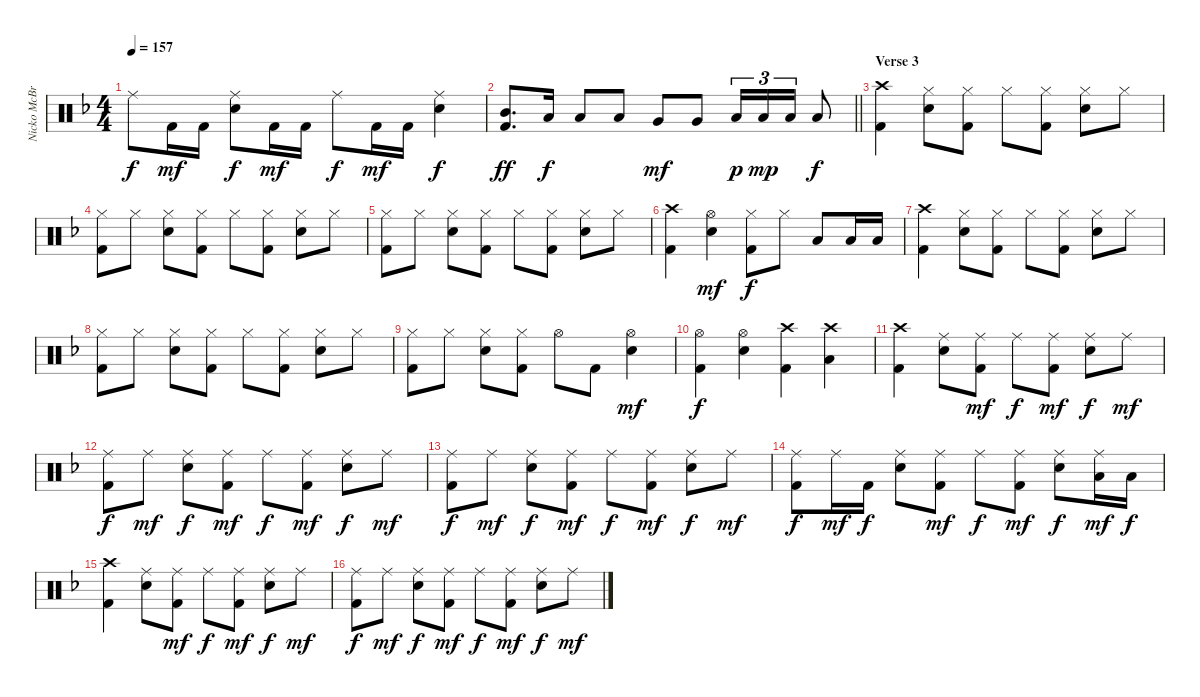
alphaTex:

\track ("Nicko McBrain" "Nicko McBr") {instrument percussion}
\staff {score}
\articulation defaults
\ts (4 4)
\tempo 157
\clef neutral
\ks f "Ride (middle)".8{dy f} "Kick (hit) 2".16{dy mf} "Kick (hit) 2".16
("Ride (middle)" "Electric Snare (hit)").8{dy f} "Kick (hit) 2".16{dy mf} "Kick (hit) 2".16 "Ride (middle)".8{dy f} "Kick (hit) 2".16{dy mf} "Kick (hit) 2".16 ("Ride (middle)" "Electric Snare (hit)").4{dy f} |
\barLineRight lightlight
("Mid Tom (hit)" "Kick (hit) 2").8{d dy ff} "Low Tom (hit)".16{dy f} "Low Tom (hit)".8 "Low Tom (hit)".8 "Very Low Tom (hit)".8{dy mf} "Very Low Tom (hit)".8 "Low Tom (hit)".16{tu (3 2) dy p} "Low Tom (hit)".16{tu (3 2) dy mp} "Low Tom (hit)".16{tu (3 2)} "Low Tom (hit)".8{dy f} |
\section ("" "Verse 3")
("Crash high (hit)" "Kick (hit) 2").4 ("Hi-Hat (closed)" "Electric Snare (hit)").8 ("Hi-Hat (closed)" "Kick (hit) 2").8 "Hi-Hat (closed)".8 ("Hi-Hat (closed)" "Kick (hit) 2").8 ("Hi-Hat (closed)" "Electric Snare (hit)").8 "Hi-Hat (closed)".8 |
("Hi-Hat (closed)" "Kick (hit) 2").8 "Hi-Hat (closed)".8 ("Hi-Hat (closed)" "Electric Snare (hit)").8 ("Hi-Hat (closed)" "Kick (hit) 2").8 "Hi-Hat (closed)".8 ("Hi-Hat (closed)" "Kick (hit) 2").8 ("Hi-Hat (closed)" "Electric Snare (hit)").8 "Hi-Hat (closed)".8 |
("Hi-Hat (closed)" "Kick (hit) 2").8 "Hi-Hat (closed)".8 ("Hi-Hat (closed)" "Electric Snare (hit)").8 ("Hi-Hat (closed)" "Kick (hit) 2").8 "Hi-Hat (closed)".8 ("Hi-Hat (closed)" "Kick (hit) 2").8 ("Hi-Hat (closed)" "Electric Snare (hit)").8 "Hi-Hat (closed)".8 |
("Crash high (hit)" "Kick (hit) 2").4 ("Hi-Hat (open)" "Electric Snare (hit)").4{dy mf} ("Hi-Hat (closed)" "Kick (hit) 2").8{dy f} "Hi-Hat (closed)".8 "Low Tom (hit)".8 "Low Tom (hit)".16 "Low Tom (hit)".16 |
("Crash high (hit)" "Kick (hit) 2").4 ("Hi-Hat (closed)" "Electric Snare (hit)").8 ("Hi-Hat (closed)" "Kick (hit) 2").8 "Hi-Hat (closed)".8 ("Hi-Hat (closed)" "Kick (hit) 2").8 ("Hi-Hat (closed)" "Electric Snare (hit)").8 "Hi-Hat (closed)".8 |
("Hi-Hat (closed)" "Kick (hit) 2").8 "Hi-Hat (closed)".8 ("Hi-Hat (closed)" "Electric Snare (hit)").8 ("Hi-Hat (closed)" "Kick (hit) 2").8 "Hi-Hat (closed)".8 ("Hi-Hat (closed)" "Kick (hit) 2").8 ("Hi-Hat (closed)" "Electric Snare (hit)").8 "Hi-Hat (closed)".8 |
("Hi-Hat (closed)" "Kick (hit) 2").8 "Hi-Hat (closed)".8 ("Hi-Hat (closed)" "Electric Snare (hit)").8 ("Hi-Hat (closed)" "Kick (hit) 2").8 "Hi-Hat (open)".8 "Kick (hit) 2".8 ("Hi-Hat (open)" "Electric Snare (hit)").4{dy mf} |
("Hi-Hat (open)" "Kick (hit) 2").4{dy f} ("Hi-Hat (open)" "Electric Snare (hit)").4 ("Crash high (hit)" "Kick (hit) 2").4 ("Crash high (hit)" "Low Tom (hit)").4 |
("Crash high (hit)" "Kick (hit) 2").4 ("Ride (middle)" "Electric Snare (hit)").8 ("Ride (middle)" "Kick (hit) 2").8{dy mf} "Ride (middle)".8{dy f} ("Ride (middle)" "Kick (hit) 2").8{dy mf} ("Ride (middle)" "Electric Snare (hit)").8{dy f} "Ride (middle)".8{dy mf} |
("Ride (middle)" "Kick (hit) 2").8{dy f} "Ride (middle)".8{dy mf} ("Ride (middle)" "Electric Snare (hit)").8{dy f} ("Ride (middle)" "Kick (hit) 2").8{dy mf} "Ride (middle)".8{dy f} ("Ride (middle)" "Kick (hit) 2").8{dy mf} ("Ride (middle)" "Electric Snare (hit)").8{dy f} "Ride (middle)".8{dy mf} |
("Ride (middle)" "Kick (hit) 2").8{dy f} "Ride (middle)".8{dy mf} ("Ride (middle)" "Electric Snare (hit)").8{dy f} ("Ride (middle)" "Kick (hit) 2").8{dy mf} "Ride (middle)".8{dy f} ("Ride (middle)" "Kick (hit) 2").8{dy mf} ("Ride (middle)" "Electric Snare (hit)").8{dy f} "Ride (middle)".8{dy mf} |
("Ride (middle)" "Kick (hit) 2").8{dy f} "Ride (middle)".16{dy mf} "Kick (hit) 2".16{dy f} ("Ride (middle)" "Electric Snare (hit)").8 ("Ride (middle)" "Kick (hit) 2").8{dy mf} "Ride (middle)".8{dy f} ("Ride (middle)" "Kick (hit) 2").8{dy mf} ("Ride (middle)" "Electric Snare (hit)").8{dy f} ("Ride (middle)" "Low Tom (hit)").16{dy mf} "Low Tom (hit)".16{dy f} |
("Crash high (hit)" "Kick (hit) 2").4 ("Ride (middle)" "Electric Snare (hit)").8 ("Ride (middle)" "Kick (hit) 2").8{dy mf} "Ride (middle)".8{dy f} ("Ride (middle)" "Kick (hit) 2").8{dy mf} ("Ride (middle)" "Electric Snare (hit)").8{dy f} "Ride (middle)".8{dy mf} |
("Ride (middle)" "Kick (hit) 2").8{dy f} "Ride (middle)".8{dy mf} ("Ride (middle)" "Electric Snare (hit)").8{dy f} ("Ride (middle)" "Kick (hit) 2").8{dy mf} "Ride (middle)".8{dy f} ("Ride (middle)" "Kick (hit) 2").8{dy mf} ("Ride (middle)" "Electric Snare (hit)").8{dy f} "Ride (middle)".8{dy mf}
